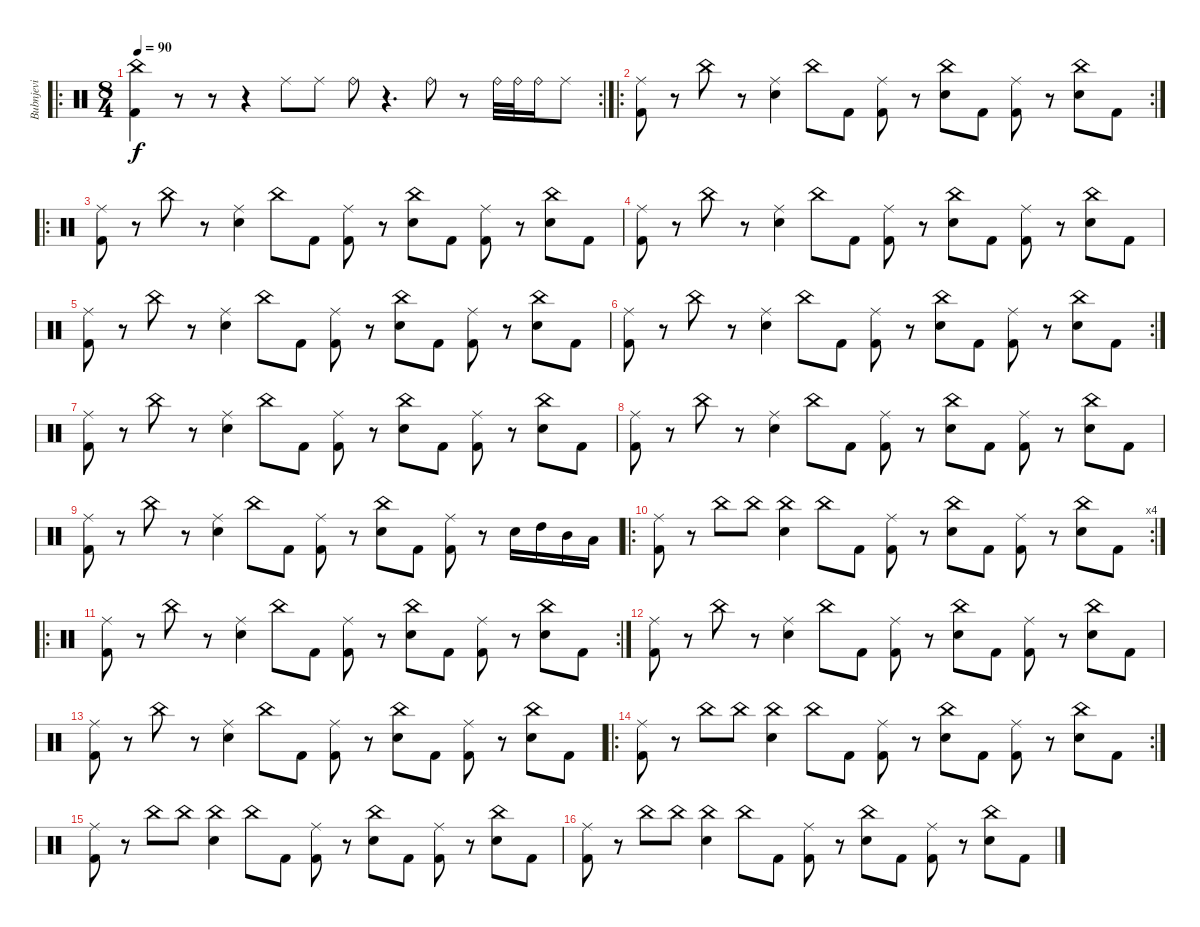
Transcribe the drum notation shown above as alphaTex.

\track ("Bubnjevi" "Bubnjevi") {instrument percussion}
\staff {score}
\articulation defaults
\ro
\rc 2
\ts (8 4)
\tempo 90
\clef neutral
\ks c
("Kick (hit) 2" "China (hit)").4{dy f} r.8 r.8 r.4 "Ride (middle)".8 "Ride (middle)".8 "Ride (bell)".8 r.4{d} "Ride (bell)".8 r.8 "Ride (bell)".32 "Ride (bell)".32 "Ride (bell)".16 "Ride (middle)".8 |
\ro
\rc 2
("Kick (hit) 2" "Ride (middle)").8 r.8 "China (hit)".8 r.8 ("Snare (hit) 2" "Ride (middle)").4 "China (hit)".8 "Kick (hit) 2".8 ("Kick (hit) 2" "Ride (middle)").8 r.8 ("Snare (hit) 2" "China (hit)").8 "Kick (hit) 2".8 ("Kick (hit) 2" "Ride (middle)").8 r.8 ("Snare (hit) 2" "China (hit)").8 "Kick (hit) 2".8 |
\ro
("Kick (hit) 2" "Ride (middle)").8 r.8 "China (hit)".8 r.8 ("Snare (hit) 2" "Ride (middle)").4 "China (hit)".8 "Kick (hit) 2".8 ("Kick (hit) 2" "Ride (middle)").8 r.8 ("Snare (hit) 2" "China (hit)").8 "Kick (hit) 2".8 ("Kick (hit) 2" "Ride (middle)").8 r.8 ("Snare (hit) 2" "China (hit)").8 "Kick (hit) 2".8 |
("Kick (hit) 2" "Ride (middle)").8 r.8 "China (hit)".8 r.8 ("Snare (hit) 2" "Ride (middle)").4 "China (hit)".8 "Kick (hit) 2".8 ("Kick (hit) 2" "Ride (middle)").8 r.8 ("Snare (hit) 2" "China (hit)").8 "Kick (hit) 2".8 ("Kick (hit) 2" "Ride (middle)").8 r.8 ("Snare (hit) 2" "China (hit)").8 "Kick (hit) 2".8 |
("Kick (hit) 2" "Ride (middle)").8 r.8 "China (hit)".8 r.8 ("Snare (hit) 2" "Ride (middle)").4 "China (hit)".8 "Kick (hit) 2".8 ("Kick (hit) 2" "Ride (middle)").8 r.8 ("Snare (hit) 2" "China (hit)").8 "Kick (hit) 2".8 ("Kick (hit) 2" "Ride (middle)").8 r.8 ("Snare (hit) 2" "China (hit)").8 "Kick (hit) 2".8 |
\rc 2
("Kick (hit) 2" "Ride (middle)").8 r.8 "China (hit)".8 r.8 ("Snare (hit) 2" "Ride (middle)").4 "China (hit)".8 "Kick (hit) 2".8 ("Kick (hit) 2" "Ride (middle)").8 r.8 ("Snare (hit) 2" "China (hit)").8 "Kick (hit) 2".8 ("Kick (hit) 2" "Ride (middle)").8 r.8 ("Snare (hit) 2" "China (hit)").8 "Kick (hit) 2".8 |
("Kick (hit) 2" "Ride (middle)").8 r.8 "China (hit)".8 r.8 ("Snare (hit) 2" "Ride (middle)").4 "China (hit)".8 "Kick (hit) 2".8 ("Kick (hit) 2" "Ride (middle)").8 r.8 ("Snare (hit) 2" "China (hit)").8 "Kick (hit) 2".8 ("Kick (hit) 2" "Ride (middle)").8 r.8 ("Snare (hit) 2" "China (hit)").8 "Kick (hit) 2".8 |
("Kick (hit) 2" "Ride (middle)").8 r.8 "China (hit)".8 r.8 ("Snare (hit) 2" "Ride (middle)").4 "China (hit)".8 "Kick (hit) 2".8 ("Kick (hit) 2" "Ride (middle)").8 r.8 ("Snare (hit) 2" "China (hit)").8 "Kick (hit) 2".8 ("Kick (hit) 2" "Ride (middle)").8 r.8 ("Snare (hit) 2" "China (hit)").8 "Kick (hit) 2".8 |
("Kick (hit) 2" "Ride (middle)").8 r.8 "China (hit)".8 r.8 ("Snare (hit) 2" "Ride (middle)").4 "China (hit)".8 "Kick (hit) 2".8 ("Kick (hit) 2" "Ride (middle)").8 r.8 ("Snare (hit) 2" "China (hit)").8 "Kick (hit) 2".8 ("Kick (hit) 2" "Ride (middle)").8 r.8 "Snare (hit) 2".16 "High Tom (hit)".16 "Mid Tom (hit)".16 "Low Tom (hit)".16 |
\ro
\rc 4
("Kick (hit) 2" "Ride (middle)").8 r.8 "China (hit)".8 "China (hit)".8 ("Snare (hit) 2" "China (hit)").4 "China (hit)".8 "Kick (hit) 2".8 ("Kick (hit) 2" "Ride (middle)").8 r.8 ("Snare (hit) 2" "China (hit)").8 "Kick (hit) 2".8 ("Kick (hit) 2" "Ride (middle)").8 r.8 ("Snare (hit) 2" "China (hit)").8 "Kick (hit) 2".8 |
\ro
\rc 2
("Kick (hit) 2" "Ride (middle)").8 r.8 "China (hit)".8 r.8 ("Snare (hit) 2" "Ride (middle)").4 "China (hit)".8 "Kick (hit) 2".8 ("Kick (hit) 2" "Ride (middle)").8 r.8 ("Snare (hit) 2" "China (hit)").8 "Kick (hit) 2".8 ("Kick (hit) 2" "Ride (middle)").8 r.8 ("Snare (hit) 2" "China (hit)").8 "Kick (hit) 2".8 |
("Kick (hit) 2" "Ride (middle)").8 r.8 "China (hit)".8 r.8 ("Snare (hit) 2" "Ride (middle)").4 "China (hit)".8 "Kick (hit) 2".8 ("Kick (hit) 2" "Ride (middle)").8 r.8 ("Snare (hit) 2" "China (hit)").8 "Kick (hit) 2".8 ("Kick (hit) 2" "Ride (middle)").8 r.8 ("Snare (hit) 2" "China (hit)").8 "Kick (hit) 2".8 |
("Kick (hit) 2" "Ride (middle)").8 r.8 "China (hit)".8 r.8 ("Snare (hit) 2" "Ride (middle)").4 "China (hit)".8 "Kick (hit) 2".8 ("Kick (hit) 2" "Ride (middle)").8 r.8 ("Snare (hit) 2" "China (hit)").8 "Kick (hit) 2".8 ("Kick (hit) 2" "Ride (middle)").8 r.8 ("Snare (hit) 2" "China (hit)").8 "Kick (hit) 2".8 |
\ro
\rc 2
("Kick (hit) 2" "Ride (middle)").8 r.8 "China (hit)".8 "China (hit)".8 ("Snare (hit) 2" "China (hit)").4 "China (hit)".8 "Kick (hit) 2".8 ("Kick (hit) 2" "Ride (middle)").8 r.8 ("Snare (hit) 2" "China (hit)").8 "Kick (hit) 2".8 ("Kick (hit) 2" "Ride (middle)").8 r.8 ("Snare (hit) 2" "China (hit)").8 "Kick (hit) 2".8 |
("Kick (hit) 2" "Ride (middle)").8 r.8 "China (hit)".8 "China (hit)".8 ("Snare (hit) 2" "China (hit)").4 "China (hit)".8 "Kick (hit) 2".8 ("Kick (hit) 2" "Ride (middle)").8 r.8 ("Snare (hit) 2" "China (hit)").8 "Kick (hit) 2".8 ("Kick (hit) 2" "Ride (middle)").8 r.8 ("Snare (hit) 2" "China (hit)").8 "Kick (hit) 2".8 |
("Kick (hit) 2" "Ride (middle)").8 r.8 "China (hit)".8 "China (hit)".8 ("Snare (hit) 2" "China (hit)").4 "China (hit)".8 "Kick (hit) 2".8 ("Kick (hit) 2" "Ride (middle)").8 r.8 ("Snare (hit) 2" "China (hit)").8 "Kick (hit) 2".8 ("Kick (hit) 2" "Ride (middle)").8 r.8 ("Snare (hit) 2" "China (hit)").8 "Kick (hit) 2".8
